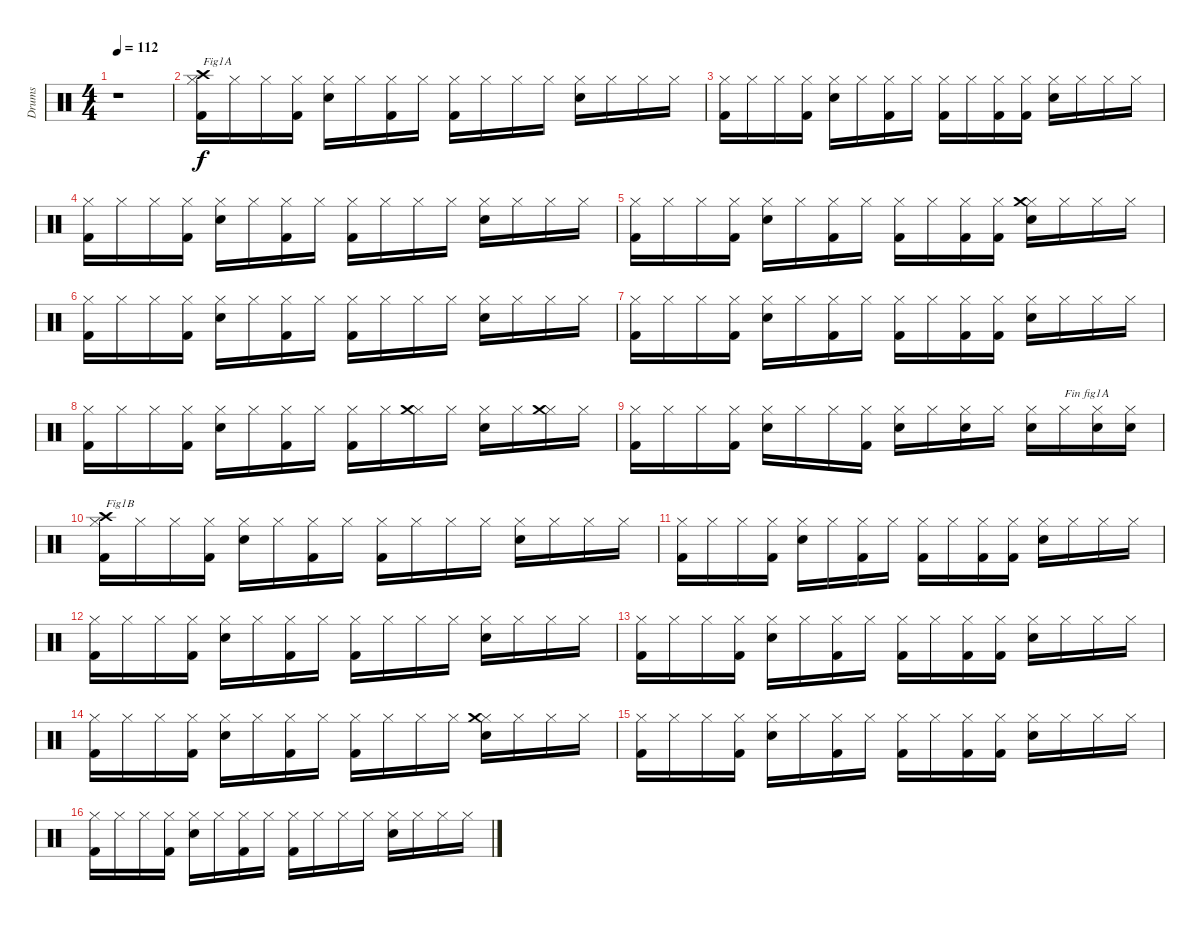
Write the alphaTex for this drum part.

\track ("Drums" "Drums") {instrument percussion}
\staff {score}
\articulation defaults
\ts (4 4)
\tempo 112
\clef neutral
\ks c
r.1{dy f} |
("Kick (hit) 2" "Hi-Hat (closed)" "Crash high (hit)").16{txt "Fig1A"} "Hi-Hat (closed)".16 "Hi-Hat (closed)".16 ("Kick (hit) 2" "Hi-Hat (closed)").16 ("Electric Snare (hit)" "Hi-Hat (closed)").16 "Hi-Hat (closed)".16 ("Kick (hit) 2" "Hi-Hat (closed)").16 "Hi-Hat (closed)".16 ("Kick (hit) 2" "Hi-Hat (closed)").16 "Hi-Hat (closed)".16 "Hi-Hat (closed)".16 "Hi-Hat (closed)".16 ("Electric Snare (hit)" "Hi-Hat (closed)").16 "Hi-Hat (closed)".16 "Hi-Hat (closed)".16 "Hi-Hat (closed)".16 |
("Kick (hit) 2" "Hi-Hat (closed)").16 "Hi-Hat (closed)".16 "Hi-Hat (closed)".16 ("Kick (hit) 2" "Hi-Hat (closed)").16 ("Electric Snare (hit)" "Hi-Hat (closed)").16 "Hi-Hat (closed)".16 ("Kick (hit) 2" "Hi-Hat (closed)").16 "Hi-Hat (closed)".16 ("Kick (hit) 2" "Hi-Hat (closed)").16 "Hi-Hat (closed)".16 ("Kick (hit) 2" "Hi-Hat (closed)").16 ("Kick (hit) 2" "Hi-Hat (closed)").16 ("Electric Snare (hit)" "Hi-Hat (closed)").16 "Hi-Hat (closed)".16 "Hi-Hat (closed)".16 "Hi-Hat (closed)".16 |
("Kick (hit) 2" "Hi-Hat (closed)").16 "Hi-Hat (closed)".16 "Hi-Hat (closed)".16 ("Kick (hit) 2" "Hi-Hat (closed)").16 ("Electric Snare (hit)" "Hi-Hat (closed)").16 "Hi-Hat (closed)".16 ("Kick (hit) 2" "Hi-Hat (closed)").16 "Hi-Hat (closed)".16 ("Kick (hit) 2" "Hi-Hat (closed)").16 "Hi-Hat (closed)".16 "Hi-Hat (closed)".16 "Hi-Hat (closed)".16 ("Electric Snare (hit)" "Hi-Hat (closed)").16 "Hi-Hat (closed)".16 "Hi-Hat (closed)".16 "Hi-Hat (closed)".16 |
("Kick (hit) 2" "Hi-Hat (closed)").16 "Hi-Hat (closed)".16 "Hi-Hat (closed)".16 ("Kick (hit) 2" "Hi-Hat (closed)").16 ("Electric Snare (hit)" "Hi-Hat (closed)").16 "Hi-Hat (closed)".16 ("Kick (hit) 2" "Hi-Hat (closed)").16 "Hi-Hat (closed)".16 ("Kick (hit) 2" "Hi-Hat (closed)").16 "Hi-Hat (closed)".16 ("Kick (hit) 2" "Hi-Hat (closed)").16 ("Kick (hit) 2" "Hi-Hat (closed)").16 ("Electric Snare (hit)" "Hi-Hat (closed)" "Crash medium (hit)").16 "Hi-Hat (closed)".16 "Hi-Hat (closed)".16 "Hi-Hat (closed)".16 |
("Kick (hit) 2" "Hi-Hat (closed)").16 "Hi-Hat (closed)".16 "Hi-Hat (closed)".16 ("Kick (hit) 2" "Hi-Hat (closed)").16 ("Electric Snare (hit)" "Hi-Hat (closed)").16 "Hi-Hat (closed)".16 ("Kick (hit) 2" "Hi-Hat (closed)").16 "Hi-Hat (closed)".16 ("Kick (hit) 2" "Hi-Hat (closed)").16 "Hi-Hat (closed)".16 "Hi-Hat (closed)".16 "Hi-Hat (closed)".16 ("Electric Snare (hit)" "Hi-Hat (closed)").16 "Hi-Hat (closed)".16 "Hi-Hat (closed)".16 "Hi-Hat (closed)".16 |
("Kick (hit) 2" "Hi-Hat (closed)").16 "Hi-Hat (closed)".16 "Hi-Hat (closed)".16 ("Kick (hit) 2" "Hi-Hat (closed)").16 ("Electric Snare (hit)" "Hi-Hat (closed)").16 "Hi-Hat (closed)".16 ("Kick (hit) 2" "Hi-Hat (closed)").16 "Hi-Hat (closed)".16 ("Kick (hit) 2" "Hi-Hat (closed)").16 "Hi-Hat (closed)".16 ("Kick (hit) 2" "Hi-Hat (closed)").16 ("Kick (hit) 2" "Hi-Hat (closed)").16 ("Electric Snare (hit)" "Hi-Hat (closed)").16 "Hi-Hat (closed)".16 "Hi-Hat (closed)".16 "Hi-Hat (closed)".16 |
("Kick (hit) 2" "Hi-Hat (closed)").16 "Hi-Hat (closed)".16 "Hi-Hat (closed)".16 ("Kick (hit) 2" "Hi-Hat (closed)").16 ("Electric Snare (hit)" "Hi-Hat (closed)").16 "Hi-Hat (closed)".16 ("Kick (hit) 2" "Hi-Hat (closed)").16 "Hi-Hat (closed)".16 ("Kick (hit) 2" "Hi-Hat (closed)").16 "Hi-Hat (closed)".16 ("Hi-Hat (closed)" "Crash medium (hit)").16 "Hi-Hat (closed)".16 ("Electric Snare (hit)" "Hi-Hat (closed)").16 "Hi-Hat (closed)".16 ("Hi-Hat (closed)" "Crash medium (hit)").16 "Hi-Hat (closed)".16 |
("Kick (hit) 2" "Hi-Hat (closed)").16 "Hi-Hat (closed)".16 "Hi-Hat (closed)".16 ("Kick (hit) 2" "Hi-Hat (closed)").16 ("Electric Snare (hit)" "Hi-Hat (closed)").16 "Hi-Hat (closed)".16 "Hi-Hat (closed)".16 ("Kick (hit) 2" "Hi-Hat (closed)").16 ("Electric Snare (hit)" "Hi-Hat (closed)").16 "Hi-Hat (closed)".16 ("Electric Snare (hit)" "Hi-Hat (closed)").16 "Hi-Hat (closed)".16 ("Electric Snare (hit)" "Hi-Hat (closed)").16 "Hi-Hat (closed)".16{txt "Fin fig1A"} ("Electric Snare (hit)" "Hi-Hat (closed)").16 ("Electric Snare (hit)" "Hi-Hat (closed)").16 |
("Kick (hit) 2" "Hi-Hat (closed)" "Crash high (hit)").16{txt "Fig1B"} "Hi-Hat (closed)".16 "Hi-Hat (closed)".16 ("Kick (hit) 2" "Hi-Hat (closed)").16 ("Electric Snare (hit)" "Hi-Hat (closed)").16 "Hi-Hat (closed)".16 ("Kick (hit) 2" "Hi-Hat (closed)").16 "Hi-Hat (closed)".16 ("Kick (hit) 2" "Hi-Hat (closed)").16 "Hi-Hat (closed)".16 "Hi-Hat (closed)".16 "Hi-Hat (closed)".16 ("Electric Snare (hit)" "Hi-Hat (closed)").16 "Hi-Hat (closed)".16 "Hi-Hat (closed)".16 "Hi-Hat (closed)".16 |
("Kick (hit) 2" "Hi-Hat (closed)").16 "Hi-Hat (closed)".16 "Hi-Hat (closed)".16 ("Kick (hit) 2" "Hi-Hat (closed)").16 ("Electric Snare (hit)" "Hi-Hat (closed)").16 "Hi-Hat (closed)".16 ("Kick (hit) 2" "Hi-Hat (closed)").16 "Hi-Hat (closed)".16 ("Kick (hit) 2" "Hi-Hat (closed)").16 "Hi-Hat (closed)".16 ("Kick (hit) 2" "Hi-Hat (closed)").16 ("Kick (hit) 2" "Hi-Hat (closed)").16 ("Electric Snare (hit)" "Hi-Hat (closed)").16 "Hi-Hat (closed)".16 "Hi-Hat (closed)".16 "Hi-Hat (closed)".16 |
("Kick (hit) 2" "Hi-Hat (closed)").16 "Hi-Hat (closed)".16 "Hi-Hat (closed)".16 ("Kick (hit) 2" "Hi-Hat (closed)").16 ("Electric Snare (hit)" "Hi-Hat (closed)").16 "Hi-Hat (closed)".16 ("Kick (hit) 2" "Hi-Hat (closed)").16 "Hi-Hat (closed)".16 ("Kick (hit) 2" "Hi-Hat (closed)").16 "Hi-Hat (closed)".16 "Hi-Hat (closed)".16 "Hi-Hat (closed)".16 ("Electric Snare (hit)" "Hi-Hat (closed)").16 "Hi-Hat (closed)".16 "Hi-Hat (closed)".16 "Hi-Hat (closed)".16 |
("Kick (hit) 2" "Hi-Hat (closed)").16 "Hi-Hat (closed)".16 "Hi-Hat (closed)".16 ("Kick (hit) 2" "Hi-Hat (closed)").16 ("Electric Snare (hit)" "Hi-Hat (closed)").16 "Hi-Hat (closed)".16 ("Kick (hit) 2" "Hi-Hat (closed)").16 "Hi-Hat (closed)".16 ("Kick (hit) 2" "Hi-Hat (closed)").16 "Hi-Hat (closed)".16 ("Kick (hit) 2" "Hi-Hat (closed)").16 ("Kick (hit) 2" "Hi-Hat (closed)").16 ("Electric Snare (hit)" "Hi-Hat (closed)").16 "Hi-Hat (closed)".16 "Hi-Hat (closed)".16 "Hi-Hat (closed)".16 |
("Kick (hit) 2" "Hi-Hat (closed)").16 "Hi-Hat (closed)".16 "Hi-Hat (closed)".16 ("Kick (hit) 2" "Hi-Hat (closed)").16 ("Electric Snare (hit)" "Hi-Hat (closed)").16 "Hi-Hat (closed)".16 ("Kick (hit) 2" "Hi-Hat (closed)").16 "Hi-Hat (closed)".16 ("Kick (hit) 2" "Hi-Hat (closed)").16 "Hi-Hat (closed)".16 "Hi-Hat (closed)".16 "Hi-Hat (closed)".16 ("Electric Snare (hit)" "Hi-Hat (closed)" "Crash medium (hit)").16 "Hi-Hat (closed)".16 "Hi-Hat (closed)".16 "Hi-Hat (closed)".16 |
("Kick (hit) 2" "Hi-Hat (closed)").16 "Hi-Hat (closed)".16 "Hi-Hat (closed)".16 ("Kick (hit) 2" "Hi-Hat (closed)").16 ("Electric Snare (hit)" "Hi-Hat (closed)").16 "Hi-Hat (closed)".16 ("Kick (hit) 2" "Hi-Hat (closed)").16 "Hi-Hat (closed)".16 ("Kick (hit) 2" "Hi-Hat (closed)").16 "Hi-Hat (closed)".16 ("Kick (hit) 2" "Hi-Hat (closed)").16 ("Kick (hit) 2" "Hi-Hat (closed)").16 ("Electric Snare (hit)" "Hi-Hat (closed)").16 "Hi-Hat (closed)".16 "Hi-Hat (closed)".16 "Hi-Hat (closed)".16 |
("Kick (hit) 2" "Hi-Hat (closed)").16 "Hi-Hat (closed)".16 "Hi-Hat (closed)".16 ("Kick (hit) 2" "Hi-Hat (closed)").16 ("Electric Snare (hit)" "Hi-Hat (closed)").16 "Hi-Hat (closed)".16 ("Kick (hit) 2" "Hi-Hat (closed)").16 "Hi-Hat (closed)".16 ("Kick (hit) 2" "Hi-Hat (closed)").16 "Hi-Hat (closed)".16 "Hi-Hat (closed)".16 "Hi-Hat (closed)".16 ("Electric Snare (hit)" "Hi-Hat (closed)").16 "Hi-Hat (closed)".16 "Hi-Hat (closed)".16 "Hi-Hat (closed)".16
